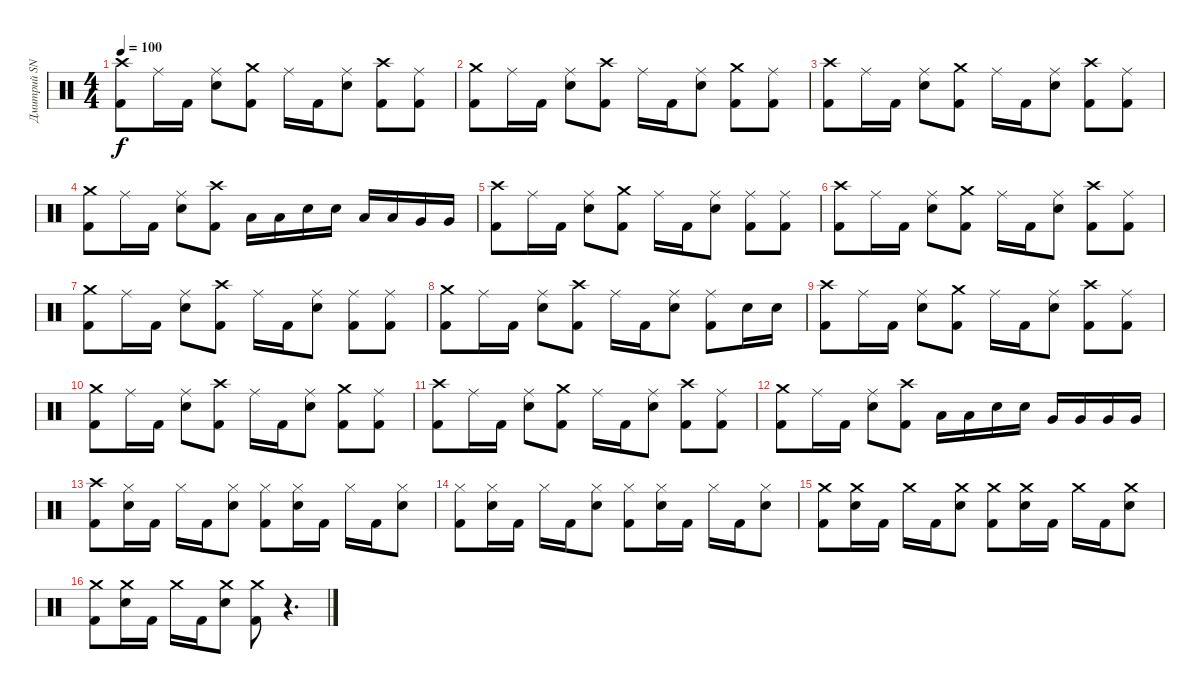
\track ("Дмитрий SNAKE Хакимов" "Дмитрий SN") {instrument percussion}
\staff {score}
\articulation defaults
\ts (4 4)
\tempo 100
\clef neutral
\ks c
("Crash high (hit)" "Kick (hit) 2").8{dy f} "Ride (middle)".16 "Kick (hit) 2".16 ("Ride (middle)" "Snare (hit) 2").8 ("Crash medium (hit)" "Kick (hit) 2").8 "Ride (middle)".16 "Kick (hit) 2".16 ("Ride (middle)" "Snare (hit) 2").8 ("Crash high (hit)" "Kick (hit) 2").8 ("Ride (middle)" "Kick (hit) 2").8 |
("Crash medium (hit)" "Kick (hit) 2").8 "Ride (middle)".16 "Kick (hit) 2".16 ("Ride (middle)" "Snare (hit) 2").8 ("Crash high (hit)" "Kick (hit) 2").8 "Ride (middle)".16 "Kick (hit) 2".16 ("Ride (middle)" "Snare (hit) 2").8 ("Crash medium (hit)" "Kick (hit) 2").8 ("Ride (middle)" "Kick (hit) 2").8 |
("Crash high (hit)" "Kick (hit) 2").8 "Ride (middle)".16 "Kick (hit) 2".16 ("Ride (middle)" "Snare (hit) 2").8 ("Crash medium (hit)" "Kick (hit) 2").8 "Ride (middle)".16 "Kick (hit) 2".16 ("Ride (middle)" "Snare (hit) 2").8 ("Crash high (hit)" "Kick (hit) 2").8 ("Ride (middle)" "Kick (hit) 2").8 |
("Crash medium (hit)" "Kick (hit) 2").8 "Ride (middle)".16 "Kick (hit) 2".16 ("Ride (middle)" "Snare (hit) 2").8 ("Crash high (hit)" "Kick (hit) 2").8 "Low Tom (hit)".16 "Low Tom (hit)".16 "Snare (hit) 2".16 "Snare (hit) 2".16 "Low Tom (hit)".16 "Low Tom (hit)".16 "Very Low Tom (hit)".16 "Very Low Tom (hit)".16 |
("Crash high (hit)" "Kick (hit) 2").8 "Ride (middle)".16 "Kick (hit) 2".16 ("Ride (middle)" "Snare (hit) 2").8 ("Crash medium (hit)" "Kick (hit) 2").8 "Ride (middle)".16 "Kick (hit) 2".16 ("Ride (middle)" "Snare (hit) 2").8 ("Ride (middle)" "Kick (hit) 2").8 ("Ride (middle)" "Kick (hit) 2").8 |
("Crash high (hit)" "Kick (hit) 2").8 "Ride (middle)".16 "Kick (hit) 2".16 ("Ride (middle)" "Snare (hit) 2").8 ("Crash medium (hit)" "Kick (hit) 2").8 "Ride (middle)".16 "Kick (hit) 2".16 ("Ride (middle)" "Snare (hit) 2").8 ("Crash high (hit)" "Kick (hit) 2").8 ("Ride (middle)" "Kick (hit) 2").8 |
("Crash medium (hit)" "Kick (hit) 2").8 "Ride (middle)".16 "Kick (hit) 2".16 ("Ride (middle)" "Snare (hit) 2").8 ("Crash high (hit)" "Kick (hit) 2").8 "Ride (middle)".16 "Kick (hit) 2".16 ("Ride (middle)" "Snare (hit) 2").8 ("Ride (middle)" "Kick (hit) 2").8 ("Ride (middle)" "Kick (hit) 2").8 |
("Crash medium (hit)" "Kick (hit) 2").8 "Ride (middle)".16 "Kick (hit) 2".16 ("Ride (middle)" "Snare (hit) 2").8 ("Crash high (hit)" "Kick (hit) 2").8 "Ride (middle)".16 "Kick (hit) 2".16 ("Ride (middle)" "Snare (hit) 2").8 ("Ride (middle)" "Kick (hit) 2").8 "Snare (hit) 2".16 "Snare (hit) 2".16 |
("Crash high (hit)" "Kick (hit) 2").8 "Ride (middle)".16 "Kick (hit) 2".16 ("Ride (middle)" "Snare (hit) 2").8 ("Crash medium (hit)" "Kick (hit) 2").8 "Ride (middle)".16 "Kick (hit) 2".16 ("Ride (middle)" "Snare (hit) 2").8 ("Crash high (hit)" "Kick (hit) 2").8 ("Ride (middle)" "Kick (hit) 2").8 |
("Crash medium (hit)" "Kick (hit) 2").8 "Ride (middle)".16 "Kick (hit) 2".16 ("Ride (middle)" "Snare (hit) 2").8 ("Crash high (hit)" "Kick (hit) 2").8 "Ride (middle)".16 "Kick (hit) 2".16 ("Ride (middle)" "Snare (hit) 2").8 ("Crash medium (hit)" "Kick (hit) 2").8 ("Ride (middle)" "Kick (hit) 2").8 |
("Crash high (hit)" "Kick (hit) 2").8 "Ride (middle)".16 "Kick (hit) 2".16 ("Ride (middle)" "Snare (hit) 2").8 ("Crash medium (hit)" "Kick (hit) 2").8 "Ride (middle)".16 "Kick (hit) 2".16 ("Ride (middle)" "Snare (hit) 2").8 ("Crash high (hit)" "Kick (hit) 2").8 ("Ride (middle)" "Kick (hit) 2").8 |
("Crash medium (hit)" "Kick (hit) 2").8 "Ride (middle)".16 "Kick (hit) 2".16 ("Ride (middle)" "Snare (hit) 2").8 ("Crash high (hit)" "Kick (hit) 2").8 "Low Tom (hit)".16 "Low Tom (hit)".16 "Snare (hit) 2".16 "Snare (hit) 2".16 "Very Low Tom (hit)".16 "Very Low Tom (hit)".16 "Very Low Tom (hit)".16 "Very Low Tom (hit)".16 |
("Crash high (hit)" "Kick (hit) 2").8 ("Hi-Hat (closed)" "Snare (hit) 2").16 "Kick (hit) 2".16 "Hi-Hat (closed)".16 "Kick (hit) 2".16 ("Hi-Hat (closed)" "Snare (hit) 2").8 ("Hi-Hat (closed)" "Kick (hit) 2").8 ("Hi-Hat (closed)" "Snare (hit) 2").16 "Kick (hit) 2".16 "Hi-Hat (closed)".16 "Kick (hit) 2".16 ("Hi-Hat (closed)" "Snare (hit) 2").8 |
("Hi-Hat (closed)" "Kick (hit) 2").8 ("Hi-Hat (closed)" "Snare (hit) 2").16 "Kick (hit) 2".16 "Hi-Hat (closed)".16 "Kick (hit) 2".16 ("Hi-Hat (closed)" "Snare (hit) 2").8 ("Hi-Hat (closed)" "Kick (hit) 2").8 ("Hi-Hat (closed)" "Snare (hit) 2").16 "Kick (hit) 2".16 "Hi-Hat (closed)".16 "Kick (hit) 2".16 ("Hi-Hat (closed)" "Snare (hit) 2").8 |
("Crash medium (hit)" "Kick (hit) 2").8 ("Crash medium (hit)" "Snare (hit) 2").16 "Kick (hit) 2".16 "Crash medium (hit)".16 "Kick (hit) 2".16 ("Crash medium (hit)" "Snare (hit) 2").8 ("Crash medium (hit)" "Kick (hit) 2").8 ("Crash medium (hit)" "Snare (hit) 2").16 "Kick (hit) 2".16 "Crash medium (hit)".16 "Kick (hit) 2".16 ("Crash medium (hit)" "Snare (hit) 2").8 |
("Crash medium (hit)" "Kick (hit) 2").8 ("Crash medium (hit)" "Snare (hit) 2").16 "Kick (hit) 2".16 "Crash medium (hit)".16 "Kick (hit) 2".16 ("Crash medium (hit)" "Snare (hit) 2").8 ("Crash medium (hit)" "Kick (hit) 2").8 r.4{d}
